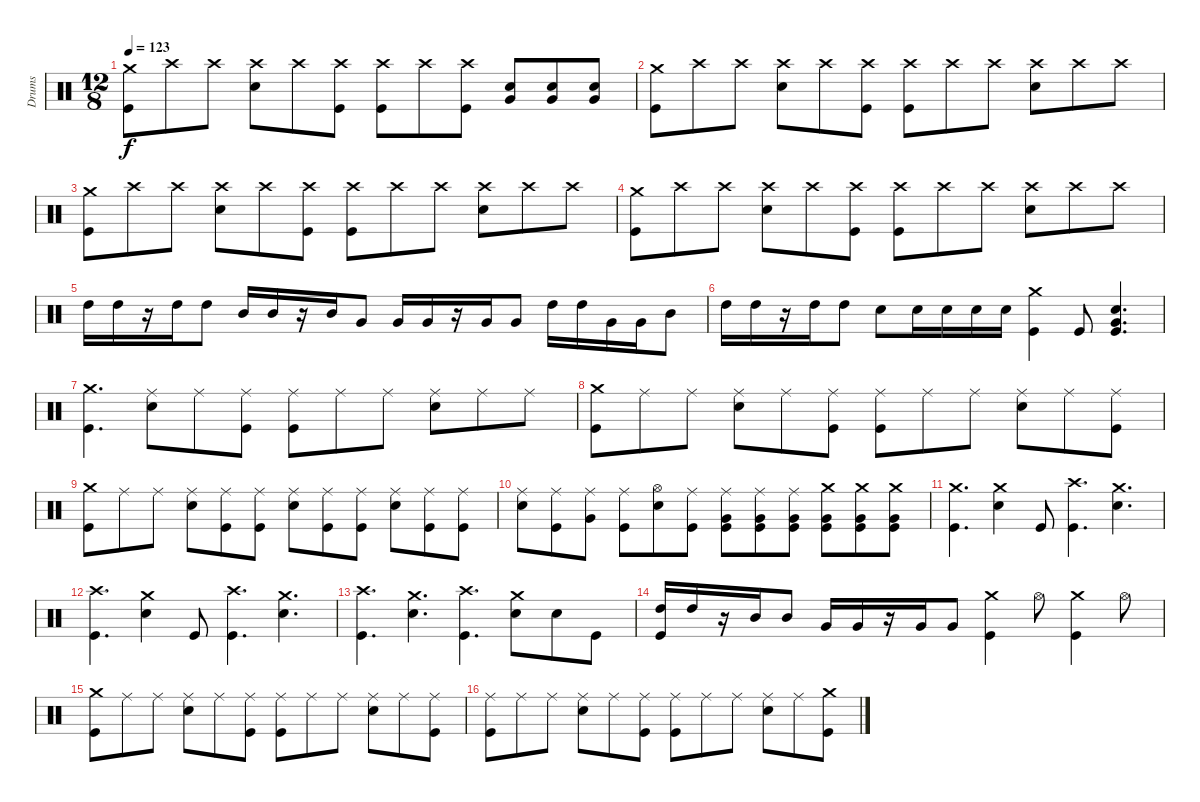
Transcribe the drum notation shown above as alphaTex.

\track ("Drums" "Drums") {instrument percussion}
\staff {score}
\articulation defaults
\ts (12 8)
\tempo 123
\clef neutral
\ks c
("Crash medium (hit)" "Kick (hit)").8{dy f} "Crash high (hit)".8 "Crash high (hit)".8 ("Crash high (hit)" "Snare (hit) 2").8 "Crash high (hit)".8 ("Crash high (hit)" "Kick (hit)").8 ("Crash high (hit)" "Kick (hit)").8 "Crash high (hit)".8 ("Crash high (hit)" "Kick (hit)").8 ("Very Low Tom (hit)" "Snare (hit) 2").8 ("Very Low Tom (hit)" "Snare (hit) 2").8 ("Very Low Tom (hit)" "Snare (hit) 2").8 |
("Crash medium (hit)" "Kick (hit)").8 "Crash high (hit)".8 "Crash high (hit)".8 ("Crash high (hit)" "Snare (hit) 2").8 "Crash high (hit)".8 ("Crash high (hit)" "Kick (hit)").8 ("Crash high (hit)" "Kick (hit)").8 "Crash high (hit)".8 "Crash high (hit)".8 ("Crash high (hit)" "Snare (hit) 2").8 "Crash high (hit)".8 "Crash high (hit)".8 |
("Crash medium (hit)" "Kick (hit)").8 "Crash high (hit)".8 "Crash high (hit)".8 ("Crash high (hit)" "Snare (hit) 2").8 "Crash high (hit)".8 ("Crash high (hit)" "Kick (hit)").8 ("Crash high (hit)" "Kick (hit)").8 "Crash high (hit)".8 "Crash high (hit)".8 ("Crash high (hit)" "Snare (hit) 2").8 "Crash high (hit)".8 "Crash high (hit)".8 |
("Crash medium (hit)" "Kick (hit)").8 "Crash high (hit)".8 "Crash high (hit)".8 ("Crash high (hit)" "Snare (hit) 2").8 "Crash high (hit)".8 ("Crash high (hit)" "Kick (hit)").8 ("Crash high (hit)" "Kick (hit)").8 "Crash high (hit)".8 "Crash high (hit)".8 ("Crash high (hit)" "Snare (hit) 2").8 "Crash high (hit)".8 "Crash high (hit)".8 |
"High Tom (hit)".16 "High Tom (hit)".16 r.16 "High Tom (hit)".16 "High Tom (hit)".8 "Mid Tom (hit)".16 "Mid Tom (hit)".16 r.16 "Mid Tom (hit)".16 "Very Low Tom (hit)".8 "Very Low Tom (hit)".16 "Very Low Tom (hit)".16 r.16 "Very Low Tom (hit)".16 "Very Low Tom (hit)".8 "High Tom (hit)".16 "High Tom (hit)".16 "Very Low Tom (hit)".16 "Very Low Tom (hit)".16 "Mid Tom (hit)".8 |
"High Tom (hit)".16 "High Tom (hit)".16 r.16 "High Tom (hit)".16 "High Tom (hit)".8 "Snare (hit) 2".8 "Snare (hit) 2".16 "Snare (hit) 2".16 "Snare (hit) 2".16 "Snare (hit) 2".16 ("Crash medium (hit)" "Kick (hit)").4 "Kick (hit)".8 ("Very Low Tom (hit)" "Snare (hit) 2" "Kick (hit)").4{d} |
("Crash medium (hit)" "Kick (hit)").4{d} ("Ride (middle)" "Snare (hit) 2").8 "Ride (middle)".8 ("Ride (middle)" "Kick (hit)").8 ("Ride (middle)" "Kick (hit)").8 "Ride (middle)".8 "Ride (middle)".8 ("Ride (middle)" "Snare (hit) 2").8 "Ride (middle)".8 "Ride (middle)".8 |
("Crash medium (hit)" "Kick (hit)").8 "Ride (middle)".8 "Ride (middle)".8 ("Ride (middle)" "Snare (hit) 2").8 "Ride (middle)".8 ("Ride (middle)" "Kick (hit)").8 ("Ride (middle)" "Kick (hit)").8 "Ride (middle)".8 "Ride (middle)".8 ("Ride (middle)" "Snare (hit) 2").8 "Ride (middle)".8 ("Ride (middle)" "Kick (hit)").8 |
("Crash medium (hit)" "Kick (hit)").8 "Ride (middle)".8 "Ride (middle)".8 ("Ride (middle)" "Snare (hit) 2").8 ("Ride (middle)" "Kick (hit)").8 ("Ride (middle)" "Kick (hit)").8 ("Ride (middle)" "Snare (hit) 2").8 ("Ride (middle)" "Kick (hit)").8 ("Ride (middle)" "Kick (hit)").8 ("Ride (middle)" "Snare (hit) 2").8 ("Ride (middle)" "Kick (hit)").8 ("Ride (middle)" "Kick (hit)").8 |
("Ride (middle)" "Snare (hit) 2").8 ("Ride (middle)" "Kick (hit)").8 ("Ride (middle)" "Very Low Tom (hit)").8 ("Ride (middle)" "Kick (hit)").8 ("Hi-Hat (open)" "Snare (hit) 2").8 ("Ride (middle)" "Kick (hit)").8 ("Ride (middle)" "Very Low Tom (hit)" "Kick (hit)").8 ("Ride (middle)" "Very Low Tom (hit)" "Kick (hit)").8 ("Ride (middle)" "Very Low Tom (hit)" "Kick (hit)").8 ("Crash medium (hit)" "Very Low Tom (hit)" "Kick (hit)").8 ("Crash medium (hit)" "Very Low Tom (hit)" "Kick (hit)").8 ("Crash medium (hit)" "Very Low Tom (hit)" "Kick (hit)").8 |
("Crash medium (hit)" "Kick (hit)").4{d} ("Crash medium (hit)" "Snare (hit) 2").4 "Kick (hit)".8 ("Crash high (hit)" "Kick (hit)").4{d} ("Crash medium (hit)" "Snare (hit) 2").4{d} |
("Crash high (hit)" "Kick (hit)").4{d} ("Crash medium (hit)" "Snare (hit) 2").4 "Kick (hit)".8 ("Crash high (hit)" "Kick (hit)").4{d} ("Crash medium (hit)" "Snare (hit) 2").4{d} |
("Crash high (hit)" "Kick (hit)").4{d} ("Crash medium (hit)" "Snare (hit) 2").4{d} ("Crash high (hit)" "Kick (hit)").4{d} ("Crash medium (hit)" "Snare (hit) 2").8 "Snare (hit) 2".8 "Kick (hit)".8 |
("High Tom (hit)" "Kick (hit)").16 "High Tom (hit)".16 r.16 "Mid Tom (hit)".16 "Mid Tom (hit)".8 "Very Low Tom (hit)".16 "Very Low Tom (hit)".16 r.16 "Very Low Tom (hit)".16 "Very Low Tom (hit)".8 ("Crash medium (hit)" "Kick (hit)").4 "Hi-Hat (open)".8 ("Crash medium (hit)" "Kick (hit)").4 "Hi-Hat (open)".8 |
("Crash medium (hit)" "Kick (hit)").8 "Ride (middle)".8 "Ride (middle)".8 ("Ride (middle)" "Snare (hit) 2").8 "Ride (middle)".8 ("Ride (middle)" "Kick (hit)").8 ("Ride (middle)" "Kick (hit)").8 "Ride (middle)".8 "Ride (middle)".8 ("Ride (middle)" "Snare (hit) 2").8 "Ride (middle)".8 ("Ride (middle)" "Kick (hit)").8 |
("Ride (middle)" "Kick (hit)").8 "Ride (middle)".8 "Ride (middle)".8 ("Ride (middle)" "Snare (hit) 2").8 "Ride (middle)".8 ("Ride (middle)" "Kick (hit)").8 ("Ride (middle)" "Kick (hit)").8 "Ride (middle)".8 "Ride (middle)".8 ("Ride (middle)" "Snare (hit) 2").8 "Ride (middle)".8 ("Crash medium (hit)" "Kick (hit)").8
